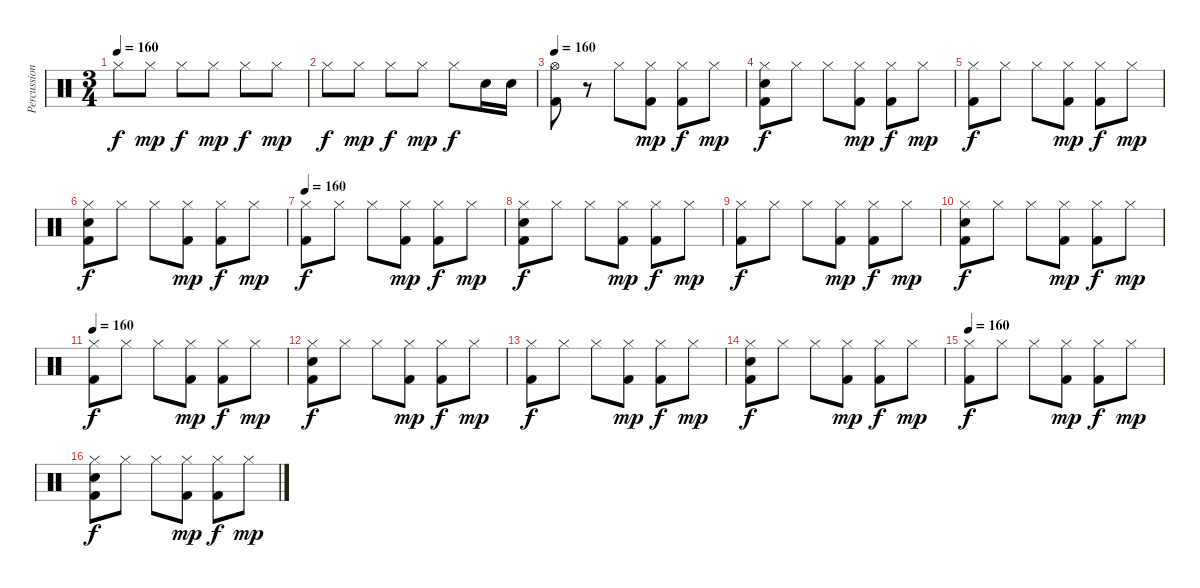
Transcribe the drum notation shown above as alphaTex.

\track ("Percussion" "Percussion") {instrument percussion}
\staff {score}
\articulation defaults
\ts (3 4)
\tempo 160
\clef neutral
\ks c "Hi-Hat (closed)".8{dy f} "Hi-Hat (closed)".8{dy mp} "Hi-Hat (closed)".8{dy f} "Hi-Hat (closed)".8{dy mp} "Hi-Hat (closed)".8{dy f} "Hi-Hat (closed)".8{dy mp}
|
"Hi-Hat (closed)".8{dy f} "Hi-Hat (closed)".8{dy mp} "Hi-Hat (closed)".8{dy f} "Hi-Hat (closed)".8{dy mp} "Hi-Hat (closed)".8{dy f} "Electric Snare (hit)".16 "Electric Snare (hit)".16 |
\tempo 160
("Hi-Hat (open)" "Kick (hit) 2").8 r.8 "Hi-Hat (closed)".8 ("Hi-Hat (closed)" "Kick (hit) 2").8{dy mp} ("Hi-Hat (closed)" "Kick (hit) 2").8{dy f} "Hi-Hat (closed)".8{dy mp} |
("Hi-Hat (closed)" "Electric Snare (hit)" "Kick (hit) 2").8{dy f} "Hi-Hat (closed)".8 "Hi-Hat (closed)".8 ("Hi-Hat (closed)" "Kick (hit) 2").8{dy mp} ("Hi-Hat (closed)" "Kick (hit) 2").8{dy f} "Hi-Hat (closed)".8{dy mp} |
("Hi-Hat (closed)" "Kick (hit) 2").8{dy f} "Hi-Hat (closed)".8 "Hi-Hat (closed)".8 ("Hi-Hat (closed)" "Kick (hit) 2").8{dy mp} ("Hi-Hat (closed)" "Kick (hit) 2").8{dy f} "Hi-Hat (closed)".8{dy mp} |
("Hi-Hat (closed)" "Electric Snare (hit)" "Kick (hit) 2").8{dy f} "Hi-Hat (closed)".8 "Hi-Hat (closed)".8 ("Hi-Hat (closed)" "Kick (hit) 2").8{dy mp} ("Hi-Hat (closed)" "Kick (hit) 2").8{dy f} "Hi-Hat (closed)".8{dy mp} |
\tempo 160
("Hi-Hat (closed)" "Kick (hit) 2").8{dy f} "Hi-Hat (closed)".8 "Hi-Hat (closed)".8 ("Hi-Hat (closed)" "Kick (hit) 2").8{dy mp} ("Hi-Hat (closed)" "Kick (hit) 2").8{dy f} "Hi-Hat (closed)".8{dy mp} |
("Hi-Hat (closed)" "Electric Snare (hit)" "Kick (hit) 2").8{dy f} "Hi-Hat (closed)".8 "Hi-Hat (closed)".8 ("Hi-Hat (closed)" "Kick (hit) 2").8{dy mp} ("Hi-Hat (closed)" "Kick (hit) 2").8{dy f} "Hi-Hat (closed)".8{dy mp} |
("Hi-Hat (closed)" "Kick (hit) 2").8{dy f} "Hi-Hat (closed)".8 "Hi-Hat (closed)".8 ("Hi-Hat (closed)" "Kick (hit) 2").8{dy mp} ("Hi-Hat (closed)" "Kick (hit) 2").8{dy f} "Hi-Hat (closed)".8{dy mp} |
("Hi-Hat (closed)" "Electric Snare (hit)" "Kick (hit) 2").8{dy f} "Hi-Hat (closed)".8 "Hi-Hat (closed)".8 ("Hi-Hat (closed)" "Kick (hit) 2").8{dy mp} ("Hi-Hat (closed)" "Kick (hit) 2").8{dy f} "Hi-Hat (closed)".8{dy mp} |
\tempo 160
("Hi-Hat (closed)" "Kick (hit) 2").8{dy f} "Hi-Hat (closed)".8 "Hi-Hat (closed)".8 ("Hi-Hat (closed)" "Kick (hit) 2").8{dy mp} ("Hi-Hat (closed)" "Kick (hit) 2").8{dy f} "Hi-Hat (closed)".8{dy mp} |
("Hi-Hat (closed)" "Electric Snare (hit)" "Kick (hit) 2").8{dy f} "Hi-Hat (closed)".8 "Hi-Hat (closed)".8 ("Hi-Hat (closed)" "Kick (hit) 2").8{dy mp} ("Hi-Hat (closed)" "Kick (hit) 2").8{dy f} "Hi-Hat (closed)".8{dy mp} |
("Hi-Hat (closed)" "Kick (hit) 2").8{dy f} "Hi-Hat (closed)".8 "Hi-Hat (closed)".8 ("Hi-Hat (closed)" "Kick (hit) 2").8{dy mp} ("Hi-Hat (closed)" "Kick (hit) 2").8{dy f} "Hi-Hat (closed)".8{dy mp} |
("Hi-Hat (closed)" "Electric Snare (hit)" "Kick (hit) 2").8{dy f} "Hi-Hat (closed)".8 "Hi-Hat (closed)".8 ("Hi-Hat (closed)" "Kick (hit) 2").8{dy mp} ("Hi-Hat (closed)" "Kick (hit) 2").8{dy f} "Hi-Hat (closed)".8{dy mp} |
\tempo 160
("Hi-Hat (closed)" "Kick (hit) 2").8{dy f} "Hi-Hat (closed)".8 "Hi-Hat (closed)".8 ("Hi-Hat (closed)" "Kick (hit) 2").8{dy mp} ("Hi-Hat (closed)" "Kick (hit) 2").8{dy f} "Hi-Hat (closed)".8{dy mp} |
("Hi-Hat (closed)" "Electric Snare (hit)" "Kick (hit) 2").8{dy f} "Hi-Hat (closed)".8 "Hi-Hat (closed)".8 ("Hi-Hat (closed)" "Kick (hit) 2").8{dy mp} ("Hi-Hat (closed)" "Kick (hit) 2").8{dy f} "Hi-Hat (closed)".8{dy mp}
